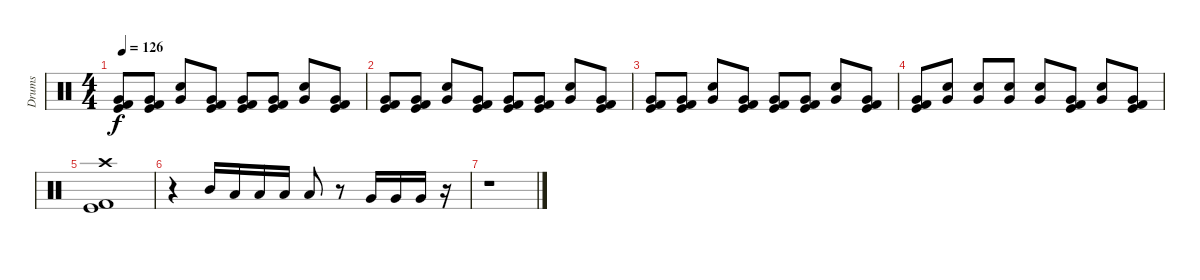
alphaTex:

\track ("Drums" "Drums") {instrument percussion}
\staff {score}
\articulation defaults
\ts (4 4)
\tempo 126
\clef neutral
\ks c
("Very Low Tom (hit)" "Kick (hit) 2" "Kick (hit)").8{dy f} ("Very Low Tom (hit)" "Kick (hit) 2" "Kick (hit)").8 ("Very Low Tom (hit)" "Snare (hit) 2").8 ("Very Low Tom (hit)" "Kick (hit) 2" "Kick (hit)").8 ("Very Low Tom (hit)" "Kick (hit) 2" "Kick (hit)").8 ("Very Low Tom (hit)" "Kick (hit) 2" "Kick (hit)").8 ("Very Low Tom (hit)" "Snare (hit) 2").8 ("Very Low Tom (hit)" "Kick (hit) 2" "Kick (hit)").8 |
("Very Low Tom (hit)" "Kick (hit) 2" "Kick (hit)").8 ("Very Low Tom (hit)" "Kick (hit) 2" "Kick (hit)").8 ("Very Low Tom (hit)" "Snare (hit) 2").8 ("Very Low Tom (hit)" "Kick (hit) 2" "Kick (hit)").8 ("Very Low Tom (hit)" "Kick (hit) 2" "Kick (hit)").8 ("Very Low Tom (hit)" "Kick (hit) 2" "Kick (hit)").8 ("Very Low Tom (hit)" "Snare (hit) 2").8 ("Very Low Tom (hit)" "Kick (hit) 2" "Kick (hit)").8 |
("Very Low Tom (hit)" "Kick (hit) 2" "Kick (hit)").8 ("Very Low Tom (hit)" "Kick (hit) 2" "Kick (hit)").8 ("Very Low Tom (hit)" "Snare (hit) 2").8 ("Very Low Tom (hit)" "Kick (hit) 2" "Kick (hit)").8 ("Very Low Tom (hit)" "Kick (hit) 2" "Kick (hit)").8 ("Very Low Tom (hit)" "Kick (hit) 2" "Kick (hit)").8 ("Very Low Tom (hit)" "Snare (hit) 2").8 ("Very Low Tom (hit)" "Kick (hit) 2" "Kick (hit)").8 |
("Very Low Tom (hit)" "Kick (hit) 2" "Kick (hit)").8 ("Very Low Tom (hit)" "Snare (hit) 2").8 ("Very Low Tom (hit)" "Snare (hit) 2").8 ("Very Low Tom (hit)" "Snare (hit) 2").8 ("Very Low Tom (hit)" "Snare (hit) 2").8 ("Very Low Tom (hit)" "Kick (hit) 2" "Kick (hit)").8 ("Very Low Tom (hit)" "Snare (hit) 2").8 ("Very Low Tom (hit)" "Kick (hit) 2" "Kick (hit)").8 |
("Crash high (hit)" "Kick (hit) 2" "Kick (hit)").1 |
r.4 "Mid Tom (hit)".16 "Low Tom (hit)".16 "Low Tom (hit)".16 "Low Tom (hit)".16 "Low Tom (hit)".8 r.8 "Very Low Tom (hit)".16 "Very Low Tom (hit)".16 "Very Low Tom (hit)".16 r.16 |
r.1
